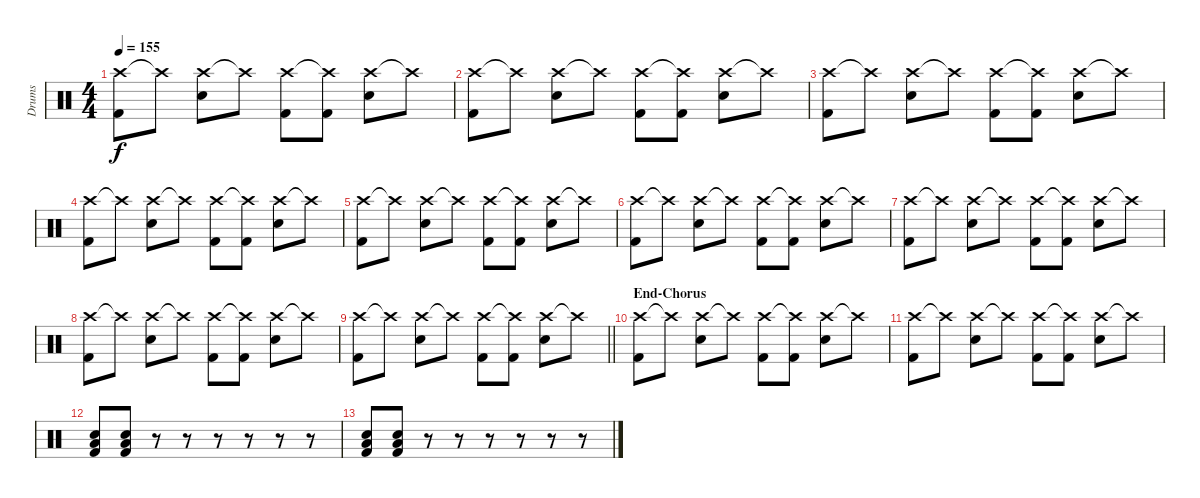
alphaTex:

\track ("Drums" "Drums") {instrument percussion}
\staff {score}
\articulation defaults
\ts (4 4)
\tempo 155
\clef neutral
\ks c
("Crash high (hit)" "Kick (hit) 2").8{dy f} "Crash high (hit)"{t}.8 ("Crash high (hit)" "Electric Snare (hit)").8 "Crash high (hit)"{t}.8 ("Crash high (hit)" "Kick (hit) 2").8 ("Crash high (hit)"{t} "Kick (hit) 2").8 ("Crash high (hit)" "Electric Snare (hit)").8 "Crash high (hit)"{t}.8 |
("Crash high (hit)" "Kick (hit) 2").8 "Crash high (hit)"{t}.8 ("Crash high (hit)" "Electric Snare (hit)").8 "Crash high (hit)"{t}.8 ("Crash high (hit)" "Kick (hit) 2").8 ("Crash high (hit)"{t} "Kick (hit) 2").8 ("Crash high (hit)" "Electric Snare (hit)").8 "Crash high (hit)"{t}.8 |
("Crash high (hit)" "Kick (hit) 2").8 "Crash high (hit)"{t}.8 ("Crash high (hit)" "Electric Snare (hit)").8 "Crash high (hit)"{t}.8 ("Crash high (hit)" "Kick (hit) 2").8 ("Crash high (hit)"{t} "Kick (hit) 2").8 ("Crash high (hit)" "Electric Snare (hit)").8 "Crash high (hit)"{t}.8 |
("Crash high (hit)" "Kick (hit) 2").8 "Crash high (hit)"{t}.8 ("Crash high (hit)" "Electric Snare (hit)").8 "Crash high (hit)"{t}.8 ("Crash high (hit)" "Kick (hit) 2").8 ("Crash high (hit)"{t} "Kick (hit) 2").8 ("Crash high (hit)" "Electric Snare (hit)").8 "Crash high (hit)"{t}.8 |
("Crash high (hit)" "Kick (hit) 2").8 "Crash high (hit)"{t}.8 ("Crash high (hit)" "Electric Snare (hit)").8 "Crash high (hit)"{t}.8 ("Crash high (hit)" "Kick (hit) 2").8 ("Crash high (hit)"{t} "Kick (hit) 2").8 ("Crash high (hit)" "Electric Snare (hit)").8 "Crash high (hit)"{t}.8 |
("Crash high (hit)" "Kick (hit) 2").8 "Crash high (hit)"{t}.8 ("Crash high (hit)" "Electric Snare (hit)").8 "Crash high (hit)"{t}.8 ("Crash high (hit)" "Kick (hit) 2").8 ("Crash high (hit)"{t} "Kick (hit) 2").8 ("Crash high (hit)" "Electric Snare (hit)").8 "Crash high (hit)"{t}.8 |
("Crash high (hit)" "Kick (hit) 2").8 "Crash high (hit)"{t}.8 ("Crash high (hit)" "Electric Snare (hit)").8 "Crash high (hit)"{t}.8 ("Crash high (hit)" "Kick (hit) 2").8 ("Crash high (hit)"{t} "Kick (hit) 2").8 ("Crash high (hit)" "Electric Snare (hit)").8 "Crash high (hit)"{t}.8 |
("Crash high (hit)" "Kick (hit) 2").8 "Crash high (hit)"{t}.8 ("Crash high (hit)" "Electric Snare (hit)").8 "Crash high (hit)"{t}.8 ("Crash high (hit)" "Kick (hit) 2").8 ("Crash high (hit)"{t} "Kick (hit) 2").8 ("Crash high (hit)" "Electric Snare (hit)").8 "Crash high (hit)"{t}.8 |
\barLineRight lightlight
("Crash high (hit)" "Kick (hit) 2").8 "Crash high (hit)"{t}.8 ("Crash high (hit)" "Electric Snare (hit)").8 "Crash high (hit)"{t}.8 ("Crash high (hit)" "Kick (hit) 2").8 ("Crash high (hit)"{t} "Kick (hit) 2").8 ("Crash high (hit)" "Electric Snare (hit)").8 "Crash high (hit)"{t}.8 |
\section ("" "End-Chorus")
("Crash high (hit)" "Kick (hit) 2").8 "Crash high (hit)"{t}.8 ("Crash high (hit)" "Electric Snare (hit)").8 "Crash high (hit)"{t}.8 ("Crash high (hit)" "Kick (hit) 2").8 ("Crash high (hit)"{t} "Kick (hit) 2").8 ("Crash high (hit)" "Electric Snare (hit)").8 "Crash high (hit)"{t}.8 |
("Crash high (hit)" "Kick (hit) 2").8 "Crash high (hit)"{t}.8 ("Crash high (hit)" "Electric Snare (hit)").8 "Crash high (hit)"{t}.8 ("Crash high (hit)" "Kick (hit) 2").8 ("Crash high (hit)"{t} "Kick (hit) 2").8 ("Crash high (hit)" "Electric Snare (hit)").8 "Crash high (hit)"{t}.8 |
("Low Floor Tom (hit)" "Electric Snare (hit)" "Kick (hit) 2").8 ("Low Floor Tom (hit)" "Electric Snare (hit)" "Kick (hit) 2").8 r.8 r.8 r.8 r.8 r.8 r.8 |
("Low Floor Tom (hit)" "Electric Snare (hit)" "Kick (hit) 2").8 ("Low Floor Tom (hit)" "Electric Snare (hit)" "Kick (hit) 2").8 r.8 r.8 r.8 r.8 r.8 r.8
